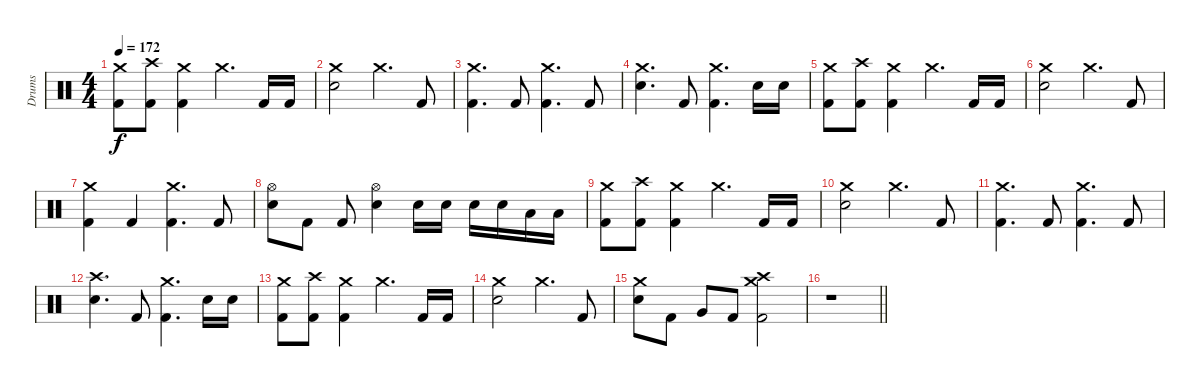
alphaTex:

\track ("Drums" "Drums") {instrument percussion}
\staff {score}
\articulation defaults
\ts (4 4)
\tempo 172
\clef neutral
\ks c
("Crash medium (hit)" "Kick (hit) 2").8{dy f} ("Crash high (hit)" "Kick (hit) 2").8 ("Crash medium (hit)" "Kick (hit) 2").4 "Crash medium (hit)".4{d} "Kick (hit) 2".16 "Kick (hit) 2".16 |
("Crash medium (hit)" "Electric Snare (hit)").2 "Crash medium (hit)".4{d} "Kick (hit) 2".8 |
("Crash medium (hit)" "Kick (hit) 2").4{d} "Kick (hit) 2".8 ("Crash medium (hit)" "Kick (hit) 2").4{d} "Kick (hit) 2".8 |
("Crash medium (hit)" "Electric Snare (hit)").4{d} "Kick (hit) 2".8 ("Crash medium (hit)" "Kick (hit) 2").4{d} "Electric Snare (hit)".16 "Electric Snare (hit)".16 |
("Crash medium (hit)" "Kick (hit) 2").8 ("Crash high (hit)" "Kick (hit) 2").8 ("Crash medium (hit)" "Kick (hit) 2").4 "Crash medium (hit)".4{d} "Kick (hit) 2".16 "Kick (hit) 2".16 |
("Crash medium (hit)" "Electric Snare (hit)").2 "Crash medium (hit)".4{d} "Kick (hit) 2".8 |
("Crash medium (hit)" "Kick (hit) 2").4 "Kick (hit) 2".4 ("Crash medium (hit)" "Kick (hit) 2").4{d} "Kick (hit) 2".8 |
("Hi-Hat (open)" "Electric Snare (hit)").8 "Kick (hit) 2".8 "Kick (hit) 2".8 ("Hi-Hat (open)" "Electric Snare (hit)").4 "Electric Snare (hit)".16 "Electric Snare (hit)".16 "Electric Snare (hit)".16 "Electric Snare (hit)".16 "Low Tom (hit)".16 "Low Tom (hit)".16 |
("Crash medium (hit)" "Kick (hit) 2").8 ("Crash high (hit)" "Kick (hit) 2").8 ("Crash medium (hit)" "Kick (hit) 2").4 "Crash medium (hit)".4{d} "Kick (hit) 2".16 "Kick (hit) 2".16 |
("Crash medium (hit)" "Electric Snare (hit)").2 "Crash medium (hit)".4{d} "Kick (hit) 2".8 |
("Crash medium (hit)" "Kick (hit) 2").4{d} "Kick (hit) 2".8 ("Crash medium (hit)" "Kick (hit) 2").4{d} "Kick (hit) 2".8 |
("Crash high (hit)" "Electric Snare (hit)").4{d} "Kick (hit) 2".8 ("Crash medium (hit)" "Kick (hit) 2").4{d} "Electric Snare (hit)".16 "Electric Snare (hit)".16 |
("Crash medium (hit)" "Kick (hit) 2").8 ("Crash high (hit)" "Kick (hit) 2").8 ("Crash medium (hit)" "Kick (hit) 2").4 "Crash medium (hit)".4{d} "Kick (hit) 2".16 "Kick (hit) 2".16 |
("Crash medium (hit)" "Electric Snare (hit)").2 "Crash medium (hit)".4{d} "Kick (hit) 2".8 |
("Crash medium (hit)" "Electric Snare (hit)").8 "Kick (hit) 2".8 "Very Low Tom (hit)".8 "Kick (hit) 2".8 ("Crash medium (hit)" "Crash high (hit)" "Kick (hit) 2").2 |
\barLineRight lightlight
r.1
